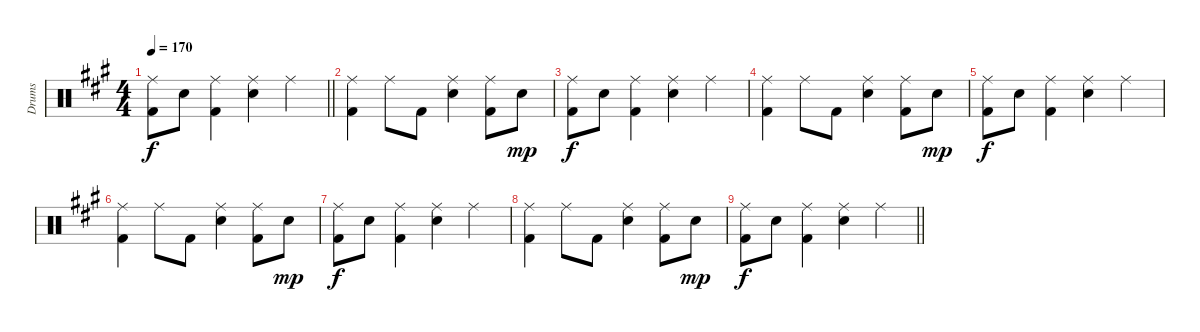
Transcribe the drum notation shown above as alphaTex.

\track ("Drums" "Drums") {instrument percussion}
\staff {score}
\articulation defaults
\ts (4 4)
\tempo 170
\clef neutral
\barLineRight lightlight
\ks f#minor
("Ride (middle)" "Kick (hit) 2").8{dy f} "Snare (hit) 2".8 ("Ride (middle)" "Kick (hit) 2").4 ("Ride (middle)" "Snare (hit) 2").4 "Ride (middle)".4 |
("Ride (middle)" "Kick (hit) 2").4 "Ride (middle)".8 "Kick (hit) 2".8 ("Ride (middle)" "Snare (hit) 2").4 ("Ride (middle)" "Kick (hit) 2").8 "Snare (hit) 2".8{dy mp} |
("Ride (middle)" "Kick (hit) 2").8{dy f} "Snare (hit) 2".8 ("Ride (middle)" "Kick (hit) 2").4 ("Ride (middle)" "Snare (hit) 2").4 "Ride (middle)".4 |
("Ride (middle)" "Kick (hit) 2").4 "Ride (middle)".8 "Kick (hit) 2".8 ("Ride (middle)" "Snare (hit) 2").4 ("Ride (middle)" "Kick (hit) 2").8 "Snare (hit) 2".8{dy mp} |
("Ride (middle)" "Kick (hit) 2").8{dy f} "Snare (hit) 2".8 ("Ride (middle)" "Kick (hit) 2").4 ("Ride (middle)" "Snare (hit) 2").4 "Ride (middle)".4 |
("Ride (middle)" "Kick (hit) 2").4 "Ride (middle)".8 "Kick (hit) 2".8 ("Ride (middle)" "Snare (hit) 2").4 ("Ride (middle)" "Kick (hit) 2").8 "Snare (hit) 2".8{dy mp} |
("Ride (middle)" "Kick (hit) 2").8{dy f} "Snare (hit) 2".8 ("Ride (middle)" "Kick (hit) 2").4 ("Ride (middle)" "Snare (hit) 2").4 "Ride (middle)".4 |
("Ride (middle)" "Kick (hit) 2").4 "Ride (middle)".8 "Kick (hit) 2".8 ("Ride (middle)" "Snare (hit) 2").4 ("Ride (middle)" "Kick (hit) 2").8 "Snare (hit) 2".8{dy mp} |
\barLineRight lightlight
("Ride (middle)" "Kick (hit) 2").8{dy f} "Snare (hit) 2".8 ("Ride (middle)" "Kick (hit) 2").4 ("Ride (middle)" "Snare (hit) 2").4 "Ride (middle)".4
